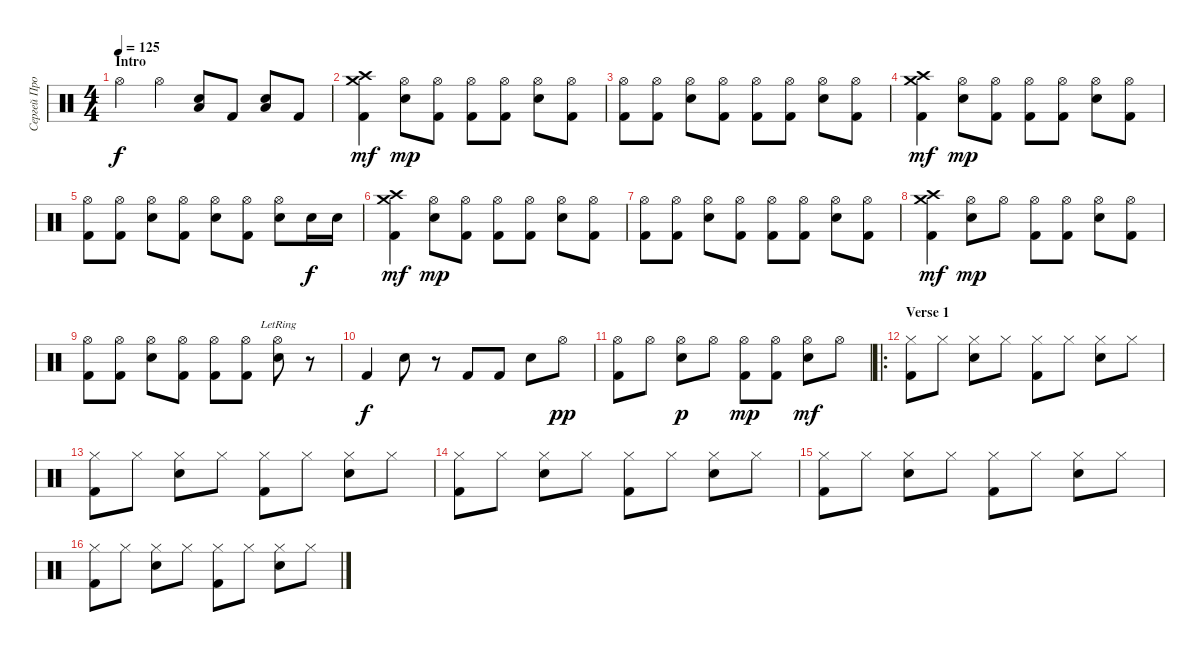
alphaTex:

\track ("Сергей Прокофьев (Percussion)" "Сергей Про") {instrument percussion}
\staff {score}
\articulation defaults
\ts (4 4)
\section ("" "Intro")
\tempo 125
\clef neutral
\ks c "Hi-Hat (open)".4{dy f} "Hi-Hat (open)".4
("Snare (hit) 2" "Low Floor Tom (hit)").8 "Kick (hit) 2".8 ("Snare (hit) 2" "Low Floor Tom (hit)").8 "Kick (hit) 2".8 |
("Crash medium (hit)" "Crash high (hit)" "Kick (hit) 2").4{dy mf} ("Hi-Hat (open)" "Snare (hit) 2").8{dy mp} ("Hi-Hat (open)" "Kick (hit) 2").8 ("Hi-Hat (open)" "Kick (hit) 2").8 ("Hi-Hat (open)" "Kick (hit) 2").8 ("Hi-Hat (open)" "Snare (hit) 2").8 ("Hi-Hat (open)" "Kick (hit) 2").8 |
("Hi-Hat (open)" "Kick (hit) 2").8 ("Hi-Hat (open)" "Kick (hit) 2").8 ("Hi-Hat (open)" "Snare (hit) 2").8 ("Hi-Hat (open)" "Kick (hit) 2").8 ("Hi-Hat (open)" "Kick (hit) 2").8 ("Hi-Hat (open)" "Kick (hit) 2").8 ("Hi-Hat (open)" "Snare (hit) 2").8 ("Hi-Hat (open)" "Kick (hit) 2").8 |
("Crash medium (hit)" "Crash high (hit)" "Kick (hit) 2").4{dy mf} ("Hi-Hat (open)" "Snare (hit) 2").8{dy mp} ("Hi-Hat (open)" "Kick (hit) 2").8 ("Hi-Hat (open)" "Kick (hit) 2").8 ("Hi-Hat (open)" "Kick (hit) 2").8 ("Hi-Hat (open)" "Snare (hit) 2").8 ("Hi-Hat (open)" "Kick (hit) 2").8 |
("Hi-Hat (open)" "Kick (hit) 2").8 ("Hi-Hat (open)" "Kick (hit) 2").8 ("Hi-Hat (open)" "Snare (hit) 2").8 ("Hi-Hat (open)" "Kick (hit) 2").8 ("Hi-Hat (open)" "Snare (hit) 2").8 ("Hi-Hat (open)" "Kick (hit) 2").8 ("Hi-Hat (open)" "Snare (hit) 2").8 "Snare (hit) 2".16{dy f} "Snare (hit) 2".16 |
("Crash medium (hit)" "Crash high (hit)" "Kick (hit) 2").4{dy mf} ("Hi-Hat (open)" "Snare (hit) 2").8{dy mp} ("Hi-Hat (open)" "Kick (hit) 2").8 ("Hi-Hat (open)" "Kick (hit) 2").8 ("Hi-Hat (open)" "Kick (hit) 2").8 ("Hi-Hat (open)" "Snare (hit) 2").8 ("Hi-Hat (open)" "Kick (hit) 2").8 |
("Hi-Hat (open)" "Kick (hit) 2").8 ("Hi-Hat (open)" "Kick (hit) 2").8 ("Hi-Hat (open)" "Snare (hit) 2").8 ("Hi-Hat (open)" "Kick (hit) 2").8 ("Hi-Hat (open)" "Kick (hit) 2").8 ("Hi-Hat (open)" "Kick (hit) 2").8 ("Hi-Hat (open)" "Snare (hit) 2").8 ("Hi-Hat (open)" "Kick (hit) 2").8 |
("Crash medium (hit)" "Crash high (hit)" "Kick (hit) 2").4{dy mf} ("Hi-Hat (open)" "Snare (hit) 2").8{dy mp} "Hi-Hat (open)".8 ("Hi-Hat (open)" "Kick (hit) 2").8 ("Hi-Hat (open)" "Kick (hit) 2").8 ("Hi-Hat (open)" "Snare (hit) 2").8 ("Hi-Hat (open)" "Kick (hit) 2").8 |
("Hi-Hat (open)" "Kick (hit) 2").8 ("Hi-Hat (open)" "Kick (hit) 2").8 ("Hi-Hat (open)" "Snare (hit) 2").8 ("Hi-Hat (open)" "Kick (hit) 2").8 ("Hi-Hat (open)" "Kick (hit) 2").8 ("Hi-Hat (open)" "Kick (hit) 2").8 ("Hi-Hat (open)"{lr} "Snare (hit) 2").8 r.8 |
"Kick (hit) 2".4{dy f} "Snare (hit) 2".8 r.8 "Kick (hit) 2".8 "Kick (hit) 2".8 "Snare (hit) 2".8 "Hi-Hat (open)".8{dy pp} |
("Hi-Hat (open)" "Kick (hit) 2").8 "Hi-Hat (open)".8 ("Hi-Hat (open)" "Snare (hit) 2").8{dy p} "Hi-Hat (open)".8 ("Hi-Hat (open)" "Kick (hit) 2").8{dy mp} ("Hi-Hat (open)" "Kick (hit) 2").8 ("Hi-Hat (open)" "Snare (hit) 2").8{dy mf} "Hi-Hat (open)".8 |
\ro
\section ("" "Verse 1")
("Hi-Hat (closed)" "Kick (hit) 2").8 "Hi-Hat (closed)".8 ("Hi-Hat (closed)" "Snare (hit) 2").8 "Hi-Hat (closed)".8 ("Hi-Hat (closed)" "Kick (hit) 2").8 "Hi-Hat (closed)".8 ("Hi-Hat (closed)" "Snare (hit) 2").8 "Hi-Hat (closed)".8 |
("Hi-Hat (closed)" "Kick (hit) 2").8 "Hi-Hat (closed)".8 ("Hi-Hat (closed)" "Snare (hit) 2").8 "Hi-Hat (closed)".8 ("Hi-Hat (closed)" "Kick (hit) 2").8 "Hi-Hat (closed)".8 ("Hi-Hat (closed)" "Snare (hit) 2").8 "Hi-Hat (closed)".8 |
("Hi-Hat (closed)" "Kick (hit) 2").8 "Hi-Hat (closed)".8 ("Hi-Hat (closed)" "Snare (hit) 2").8 "Hi-Hat (closed)".8 ("Hi-Hat (closed)" "Kick (hit) 2").8 "Hi-Hat (closed)".8 ("Hi-Hat (closed)" "Snare (hit) 2").8 "Hi-Hat (closed)".8 |
("Hi-Hat (closed)" "Kick (hit) 2").8 "Hi-Hat (closed)".8 ("Hi-Hat (closed)" "Snare (hit) 2").8 "Hi-Hat (closed)".8 ("Hi-Hat (closed)" "Kick (hit) 2").8 "Hi-Hat (closed)".8 ("Hi-Hat (closed)" "Snare (hit) 2").8 "Hi-Hat (closed)".8 |
("Hi-Hat (closed)" "Kick (hit) 2").8 "Hi-Hat (closed)".8 ("Hi-Hat (closed)" "Snare (hit) 2").8 "Hi-Hat (closed)".8 ("Hi-Hat (closed)" "Kick (hit) 2").8 "Hi-Hat (closed)".8 ("Hi-Hat (closed)" "Snare (hit) 2").8 "Hi-Hat (closed)".8
